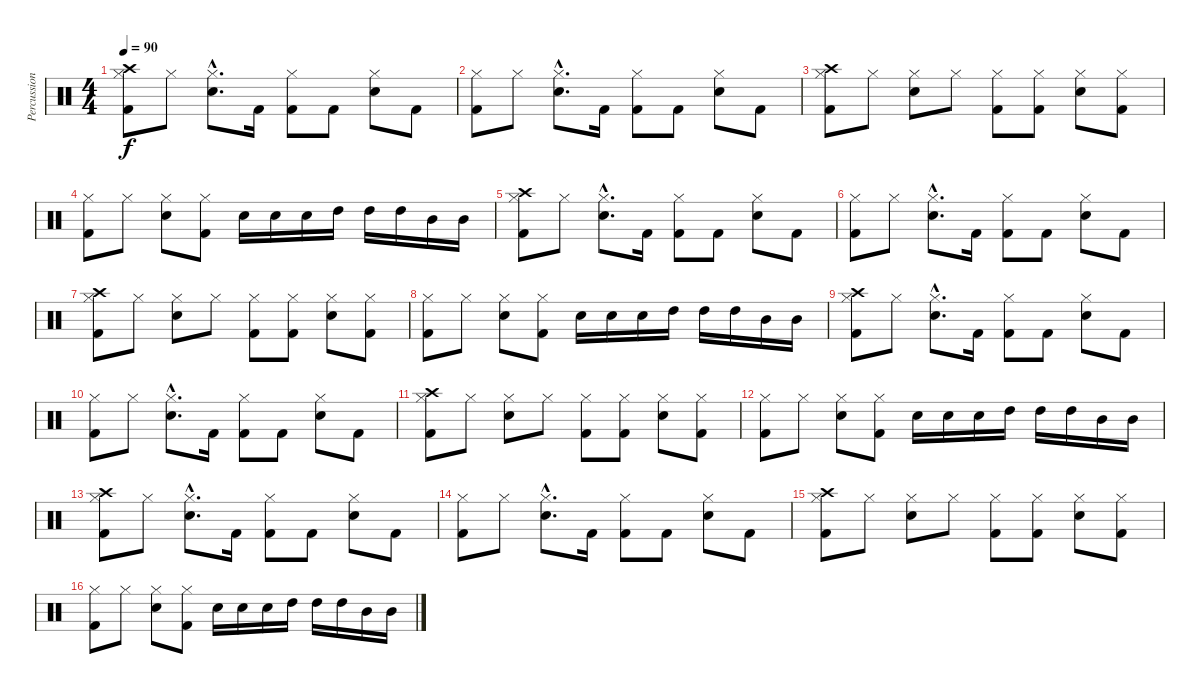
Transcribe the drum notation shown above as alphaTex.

\track ("Percussions" "Percussion") {instrument percussion}
\staff {score}
\articulation defaults
\ts (4 4)
\tempo 90
\clef neutral
\ks c
("Crash high (hit)" "Hi-Hat (closed)" "Kick (hit) 2").8{dy f} "Hi-Hat (closed)".8 ("Hi-Hat (closed)"{hac} "Snare (hit) 2"{hac}).8{d} "Kick (hit) 2".16 ("Hi-Hat (closed)" "Kick (hit) 2").8 "Kick (hit) 2".8 ("Hi-Hat (closed)" "Snare (hit) 2").8 "Kick (hit) 2".8 |
("Hi-Hat (closed)" "Kick (hit) 2").8 "Hi-Hat (closed)".8 ("Hi-Hat (closed)"{hac} "Snare (hit) 2"{hac}).8{d} "Kick (hit) 2".16 ("Hi-Hat (closed)" "Kick (hit) 2").8 "Kick (hit) 2".8 ("Hi-Hat (closed)" "Snare (hit) 2").8 "Kick (hit) 2".8 |
("Crash high (hit)" "Hi-Hat (closed)" "Kick (hit) 2").8 "Hi-Hat (closed)".8 ("Hi-Hat (closed)" "Snare (hit) 2").8 "Hi-Hat (closed)".8 ("Hi-Hat (closed)" "Kick (hit) 2").8 ("Hi-Hat (closed)" "Kick (hit) 2").8 ("Hi-Hat (closed)" "Snare (hit) 2").8 ("Hi-Hat (closed)" "Kick (hit) 2").8 |
("Hi-Hat (closed)" "Kick (hit) 2").8 "Hi-Hat (closed)".8 ("Hi-Hat (closed)" "Snare (hit) 2").8 ("Hi-Hat (closed)" "Kick (hit) 2").8 "Snare (hit) 2".16 "Snare (hit) 2".16 "Snare (hit) 2".16 "High Tom (hit)".16 "High Tom (hit)".16 "High Tom (hit)".16 "Mid Tom (hit)".16 "Mid Tom (hit)".16 |
("Crash high (hit)" "Hi-Hat (closed)" "Kick (hit) 2").8 "Hi-Hat (closed)".8 ("Hi-Hat (closed)"{hac} "Snare (hit) 2"{hac}).8{d} "Kick (hit) 2".16 ("Hi-Hat (closed)" "Kick (hit) 2").8 "Kick (hit) 2".8 ("Hi-Hat (closed)" "Snare (hit) 2").8 "Kick (hit) 2".8 |
("Hi-Hat (closed)" "Kick (hit) 2").8 "Hi-Hat (closed)".8 ("Hi-Hat (closed)"{hac} "Snare (hit) 2"{hac}).8{d} "Kick (hit) 2".16 ("Hi-Hat (closed)" "Kick (hit) 2").8 "Kick (hit) 2".8 ("Hi-Hat (closed)" "Snare (hit) 2").8 "Kick (hit) 2".8 |
("Crash high (hit)" "Hi-Hat (closed)" "Kick (hit) 2").8 "Hi-Hat (closed)".8 ("Hi-Hat (closed)" "Snare (hit) 2").8 "Hi-Hat (closed)".8 ("Hi-Hat (closed)" "Kick (hit) 2").8 ("Hi-Hat (closed)" "Kick (hit) 2").8 ("Hi-Hat (closed)" "Snare (hit) 2").8 ("Hi-Hat (closed)" "Kick (hit) 2").8 |
("Hi-Hat (closed)" "Kick (hit) 2").8 "Hi-Hat (closed)".8 ("Hi-Hat (closed)" "Snare (hit) 2").8 ("Hi-Hat (closed)" "Kick (hit) 2").8 "Snare (hit) 2".16 "Snare (hit) 2".16 "Snare (hit) 2".16 "High Tom (hit)".16 "High Tom (hit)".16 "High Tom (hit)".16 "Mid Tom (hit)".16 "Mid Tom (hit)".16 |
("Crash high (hit)" "Hi-Hat (closed)" "Kick (hit) 2").8 "Hi-Hat (closed)".8 ("Hi-Hat (closed)"{hac} "Snare (hit) 2"{hac}).8{d} "Kick (hit) 2".16 ("Hi-Hat (closed)" "Kick (hit) 2").8 "Kick (hit) 2".8 ("Hi-Hat (closed)" "Snare (hit) 2").8 "Kick (hit) 2".8 |
("Hi-Hat (closed)" "Kick (hit) 2").8 "Hi-Hat (closed)".8 ("Hi-Hat (closed)"{hac} "Snare (hit) 2"{hac}).8{d} "Kick (hit) 2".16 ("Hi-Hat (closed)" "Kick (hit) 2").8 "Kick (hit) 2".8 ("Hi-Hat (closed)" "Snare (hit) 2").8 "Kick (hit) 2".8 |
("Crash high (hit)" "Hi-Hat (closed)" "Kick (hit) 2").8 "Hi-Hat (closed)".8 ("Hi-Hat (closed)" "Snare (hit) 2").8 "Hi-Hat (closed)".8 ("Hi-Hat (closed)" "Kick (hit) 2").8 ("Hi-Hat (closed)" "Kick (hit) 2").8 ("Hi-Hat (closed)" "Snare (hit) 2").8 ("Hi-Hat (closed)" "Kick (hit) 2").8 |
("Hi-Hat (closed)" "Kick (hit) 2").8 "Hi-Hat (closed)".8 ("Hi-Hat (closed)" "Snare (hit) 2").8 ("Hi-Hat (closed)" "Kick (hit) 2").8 "Snare (hit) 2".16 "Snare (hit) 2".16 "Snare (hit) 2".16 "High Tom (hit)".16 "High Tom (hit)".16 "High Tom (hit)".16 "Mid Tom (hit)".16 "Mid Tom (hit)".16 |
("Crash high (hit)" "Hi-Hat (closed)" "Kick (hit) 2").8 "Hi-Hat (closed)".8 ("Hi-Hat (closed)"{hac} "Snare (hit) 2"{hac}).8{d} "Kick (hit) 2".16 ("Hi-Hat (closed)" "Kick (hit) 2").8 "Kick (hit) 2".8 ("Hi-Hat (closed)" "Snare (hit) 2").8 "Kick (hit) 2".8 |
("Hi-Hat (closed)" "Kick (hit) 2").8 "Hi-Hat (closed)".8 ("Hi-Hat (closed)"{hac} "Snare (hit) 2"{hac}).8{d} "Kick (hit) 2".16 ("Hi-Hat (closed)" "Kick (hit) 2").8 "Kick (hit) 2".8 ("Hi-Hat (closed)" "Snare (hit) 2").8 "Kick (hit) 2".8 |
("Crash high (hit)" "Hi-Hat (closed)" "Kick (hit) 2").8 "Hi-Hat (closed)".8 ("Hi-Hat (closed)" "Snare (hit) 2").8 "Hi-Hat (closed)".8 ("Hi-Hat (closed)" "Kick (hit) 2").8 ("Hi-Hat (closed)" "Kick (hit) 2").8 ("Hi-Hat (closed)" "Snare (hit) 2").8 ("Hi-Hat (closed)" "Kick (hit) 2").8 |
("Hi-Hat (closed)" "Kick (hit) 2").8 "Hi-Hat (closed)".8 ("Hi-Hat (closed)" "Snare (hit) 2").8 ("Hi-Hat (closed)" "Kick (hit) 2").8 "Snare (hit) 2".16 "Snare (hit) 2".16 "Snare (hit) 2".16 "High Tom (hit)".16 "High Tom (hit)".16 "High Tom (hit)".16 "Mid Tom (hit)".16 "Mid Tom (hit)".16
